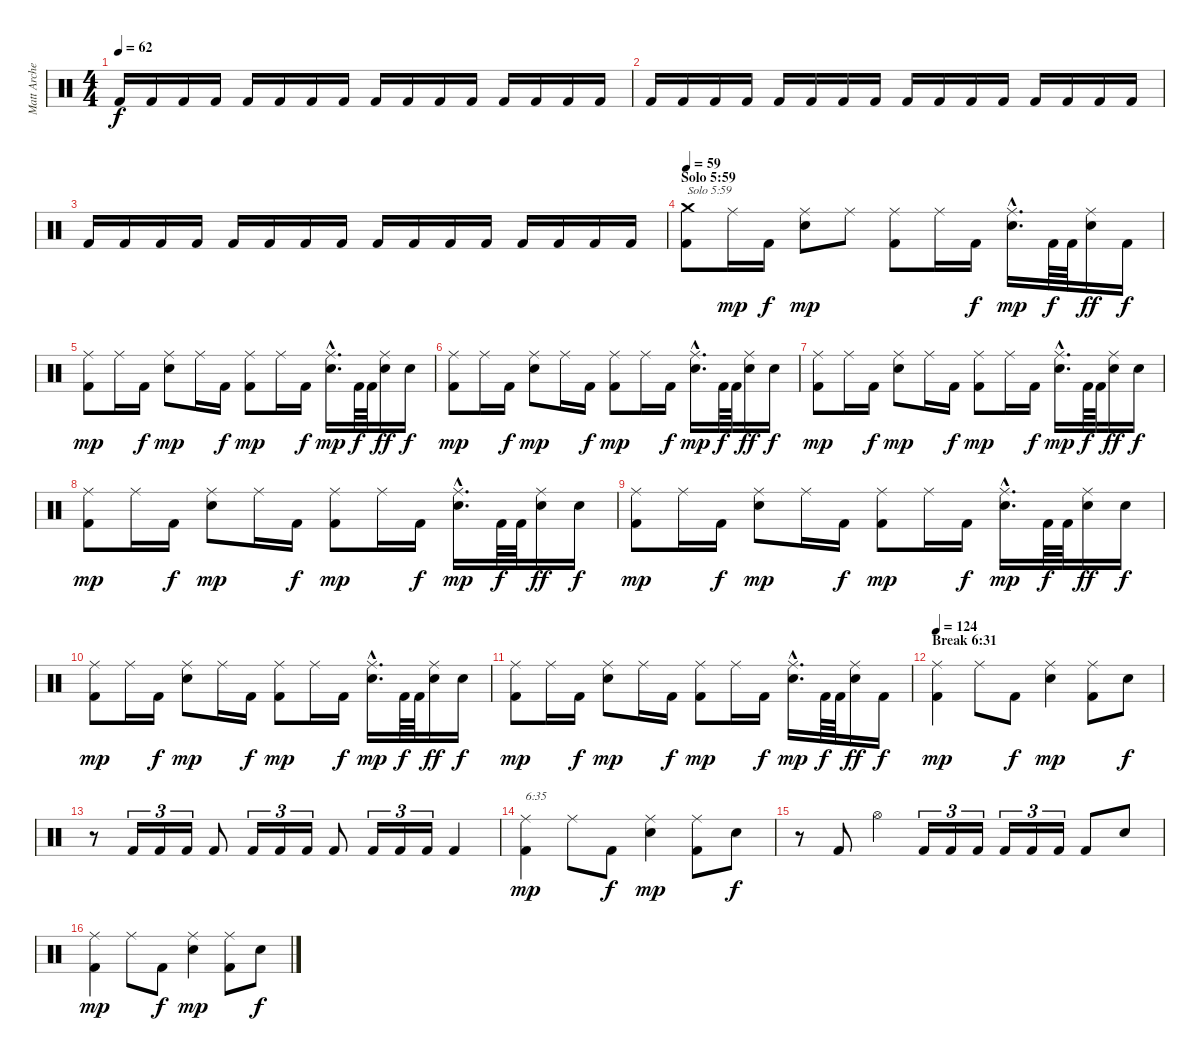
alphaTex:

\track ("Matt Archer" "Matt Arche") {instrument percussion}
\staff {score}
\articulation defaults
\ts (4 4)
\tempo 62
\clef neutral
\ks c "Kick (hit) 2".16{dy f} "Kick (hit) 2".16 "Kick (hit) 2".16 "Kick (hit) 2".16 "Kick (hit) 2".16 "Kick (hit) 2".16 "Kick (hit) 2".16 "Kick (hit) 2".16 "Kick (hit) 2".16 "Kick (hit) 2".16 "Kick (hit) 2".16 "Kick (hit) 2".16 "Kick (hit) 2".16 "Kick (hit) 2".16 "Kick (hit) 2".16 "Kick (hit) 2".16
|
"Kick (hit) 2".16 "Kick (hit) 2".16 "Kick (hit) 2".16 "Kick (hit) 2".16 "Kick (hit) 2".16 "Kick (hit) 2".16 "Kick (hit) 2".16 "Kick (hit) 2".16 "Kick (hit) 2".16 "Kick (hit) 2".16 "Kick (hit) 2".16 "Kick (hit) 2".16 "Kick (hit) 2".16 "Kick (hit) 2".16 "Kick (hit) 2".16 "Kick (hit) 2".16 |
"Kick (hit) 2".16 "Kick (hit) 2".16 "Kick (hit) 2".16 "Kick (hit) 2".16 "Kick (hit) 2".16 "Kick (hit) 2".16 "Kick (hit) 2".16 "Kick (hit) 2".16 "Kick (hit) 2".16 "Kick (hit) 2".16 "Kick (hit) 2".16 "Kick (hit) 2".16 "Kick (hit) 2".16 "Kick (hit) 2".16 "Kick (hit) 2".16 "Kick (hit) 2".16 |
\section ("" "Solo 5:59")
\tempo 59
("Kick (hit) 2" "Crash medium (hit)").8{txt "Solo 5:59"} "Ride (middle)".16{dy mp} "Kick (hit) 2".16{dy f} ("Electric Snare (hit)" "Ride (middle)").8{dy mp} "Ride (middle)".8 ("Kick (hit) 2" "Ride (middle)").8 "Ride (middle)".16 "Kick (hit) 2".16{dy f} ("Electric Snare (hit)"{hac} "Ride (middle)"{hac}).16{d dy mp} "Kick (hit) 2".64{dy f} "Kick (hit) 2".64 ("Electric Snare (hit)" "Ride (middle)").16{dy ff} "Kick (hit) 2".16{dy f} |
("Kick (hit) 2" "Ride (middle)").8{dy mp} "Ride (middle)".16 "Kick (hit) 2".16{dy f} ("Electric Snare (hit)" "Ride (middle)").8{dy mp} "Ride (middle)".16 "Kick (hit) 2".16{dy f} ("Kick (hit) 2" "Ride (middle)").8{dy mp} "Ride (middle)".16 "Kick (hit) 2".16{dy f} ("Electric Snare (hit)"{hac} "Ride (middle)"{hac}).16{d dy mp} "Kick (hit) 2".64{dy f} "Kick (hit) 2".64 ("Electric Snare (hit)" "Ride (middle)").16{dy ff} "Electric Snare (hit)".16{dy f} |
("Kick (hit) 2" "Ride (middle)").8{dy mp} "Ride (middle)".16 "Kick (hit) 2".16{dy f} ("Electric Snare (hit)" "Ride (middle)").8{dy mp} "Ride (middle)".16 "Kick (hit) 2".16{dy f} ("Kick (hit) 2" "Ride (middle)").8{dy mp} "Ride (middle)".16 "Kick (hit) 2".16{dy f} ("Electric Snare (hit)"{hac} "Ride (middle)"{hac}).16{d dy mp} "Kick (hit) 2".64{dy f} "Kick (hit) 2".64 ("Electric Snare (hit)" "Ride (middle)").16{dy ff} "Electric Snare (hit)".16{dy f} |
("Kick (hit) 2" "Ride (middle)").8{dy mp} "Ride (middle)".16 "Kick (hit) 2".16{dy f} ("Electric Snare (hit)" "Ride (middle)").8{dy mp} "Ride (middle)".16 "Kick (hit) 2".16{dy f} ("Kick (hit) 2" "Ride (middle)").8{dy mp} "Ride (middle)".16 "Kick (hit) 2".16{dy f} ("Electric Snare (hit)"{hac} "Ride (middle)"{hac}).16{d dy mp} "Kick (hit) 2".64{dy f} "Kick (hit) 2".64 ("Electric Snare (hit)" "Ride (middle)").16{dy ff} "Electric Snare (hit)".16{dy f} |
("Kick (hit) 2" "Ride (middle)").8{dy mp} "Ride (middle)".16 "Kick (hit) 2".16{dy f} ("Electric Snare (hit)" "Ride (middle)").8{dy mp} "Ride (middle)".16 "Kick (hit) 2".16{dy f} ("Kick (hit) 2" "Ride (middle)").8{dy mp} "Ride (middle)".16 "Kick (hit) 2".16{dy f} ("Electric Snare (hit)"{hac} "Ride (middle)"{hac}).16{d dy mp} "Kick (hit) 2".64{dy f} "Kick (hit) 2".64 ("Electric Snare (hit)" "Ride (middle)").16{dy ff} "Electric Snare (hit)".16{dy f} |
("Kick (hit) 2" "Ride (middle)").8{dy mp} "Ride (middle)".16 "Kick (hit) 2".16{dy f} ("Electric Snare (hit)" "Ride (middle)").8{dy mp} "Ride (middle)".16 "Kick (hit) 2".16{dy f} ("Kick (hit) 2" "Ride (middle)").8{dy mp} "Ride (middle)".16 "Kick (hit) 2".16{dy f} ("Electric Snare (hit)"{hac} "Ride (middle)"{hac}).16{d dy mp} "Kick (hit) 2".64{dy f} "Kick (hit) 2".64 ("Electric Snare (hit)" "Ride (middle)").16{dy ff} "Electric Snare (hit)".16{dy f} |
("Kick (hit) 2" "Ride (middle)").8{dy mp} "Ride (middle)".16 "Kick (hit) 2".16{dy f} ("Electric Snare (hit)" "Ride (middle)").8{dy mp} "Ride (middle)".16 "Kick (hit) 2".16{dy f} ("Kick (hit) 2" "Ride (middle)").8{dy mp} "Ride (middle)".16 "Kick (hit) 2".16{dy f} ("Electric Snare (hit)"{hac} "Ride (middle)"{hac}).16{d dy mp} "Kick (hit) 2".64{dy f} "Kick (hit) 2".64 ("Electric Snare (hit)" "Ride (middle)").16{dy ff} "Electric Snare (hit)".16{dy f} |
("Kick (hit) 2" "Ride (middle)").8{dy mp} "Ride (middle)".16 "Kick (hit) 2".16{dy f} ("Electric Snare (hit)" "Ride (middle)").8{dy mp} "Ride (middle)".16 "Kick (hit) 2".16{dy f} ("Kick (hit) 2" "Ride (middle)").8{dy mp} "Ride (middle)".16 "Kick (hit) 2".16{dy f} ("Electric Snare (hit)"{hac} "Ride (middle)"{hac}).16{d dy mp} "Kick (hit) 2".64{dy f} "Kick (hit) 2".64 ("Electric Snare (hit)" "Ride (middle)").16{dy ff} "Kick (hit) 2".16{dy f} |
\section ("" "Break 6:31")
\tempo 124
("Kick (hit) 2" "Ride (middle)").4{dy mp} "Ride (middle)".8 "Kick (hit) 2".8{dy f} ("Electric Snare (hit)" "Ride (middle)").4{dy mp} ("Kick (hit) 2" "Ride (middle)").8 "Electric Snare (hit)".8{dy f} |
r.8 "Kick (hit) 2".16{tu (3 2)} "Kick (hit) 2".16{tu (3 2)} "Kick (hit) 2".16{tu (3 2)} "Kick (hit) 2".8 "Kick (hit) 2".16{tu (3 2)} "Kick (hit) 2".16{tu (3 2)} "Kick (hit) 2".16{tu (3 2)} "Kick (hit) 2".8 "Kick (hit) 2".16{tu (3 2)} "Kick (hit) 2".16{tu (3 2)} "Kick (hit) 2".16{tu (3 2)} "Kick (hit) 2".4 |
("Kick (hit) 2" "Ride (middle)").4{txt "6:35" dy mp} "Ride (middle)".8 "Kick (hit) 2".8{dy f} ("Electric Snare (hit)" "Ride (middle)").4{dy mp} ("Kick (hit) 2" "Ride (middle)").8 "Electric Snare (hit)".8{dy f} |
r.8 "Kick (hit) 2".8 "Hi-Hat (open)".4 "Kick (hit) 2".16{tu (3 2)} "Kick (hit) 2".16{tu (3 2)} "Kick (hit) 2".16{tu (3 2)} "Kick (hit) 2".16{tu (3 2)} "Kick (hit) 2".16{tu (3 2)} "Kick (hit) 2".16{tu (3 2)} "Kick (hit) 2".8 "Electric Snare (hit)".8 |
("Kick (hit) 2" "Ride (middle)").4{dy mp} "Ride (middle)".8 "Kick (hit) 2".8{dy f} ("Electric Snare (hit)" "Ride (middle)").4{dy mp} ("Kick (hit) 2" "Ride (middle)").8 "Electric Snare (hit)".8{dy f}
